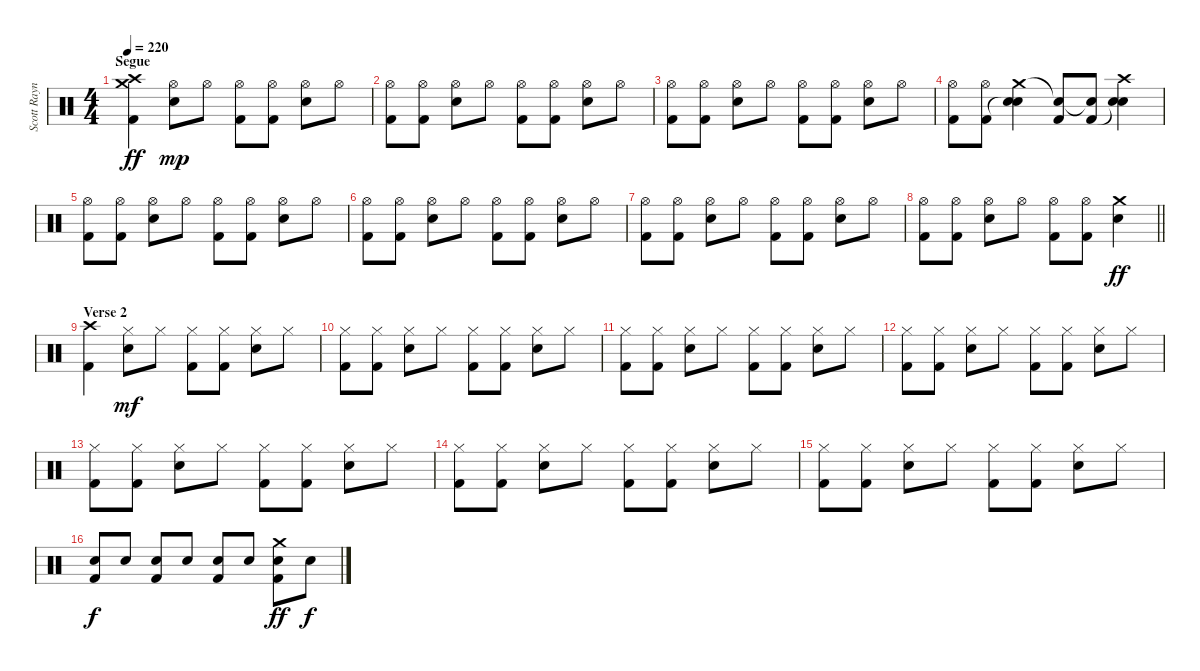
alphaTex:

\track ("Scott Raynor - Drums" "Scott Rayn") {instrument percussion}
\staff {score}
\articulation defaults
\ts (4 4)
\section ("" "Segue")
\tempo 220
\clef neutral
\ks c
("Crash high (hit)" "Crash medium (hit)" "Kick (hit) 2").4{dy ff} ("Hi-Hat (open)" "Electric Snare (hit)").8{dy mp} "Hi-Hat (open)".8 ("Hi-Hat (open)" "Kick (hit) 2").8 ("Hi-Hat (open)" "Kick (hit) 2").8 ("Hi-Hat (open)" "Electric Snare (hit)").8 "Hi-Hat (open)".8 |
("Hi-Hat (open)" "Kick (hit) 2").8 ("Hi-Hat (open)" "Kick (hit) 2").8 ("Hi-Hat (open)" "Electric Snare (hit)").8 "Hi-Hat (open)".8 ("Hi-Hat (open)" "Kick (hit) 2").8 ("Hi-Hat (open)" "Kick (hit) 2").8 ("Hi-Hat (open)" "Electric Snare (hit)").8 "Hi-Hat (open)".8 |
("Hi-Hat (open)" "Kick (hit) 2").8 ("Hi-Hat (open)" "Kick (hit) 2").8 ("Hi-Hat (open)" "Electric Snare (hit)").8 "Hi-Hat (open)".8 ("Hi-Hat (open)" "Kick (hit) 2").8 ("Hi-Hat (open)" "Kick (hit) 2").8 ("Hi-Hat (open)" "Electric Snare (hit)").8 "Hi-Hat (open)".8 |
("Hi-Hat (open)" "Kick (hit) 2").8 ("Hi-Hat (open)" "Kick (hit) 2").8 ("Crash medium (hit)" "Snare (hit)"{t} "Electric Snare (hit)").4 ("Snare (hit)"{t} "Kick (hit) 2").8 ("Snare (hit)"{t} "Kick (hit) 2").8 ("Crash high (hit)" "Snare (hit)"{t} "Electric Snare (hit)").4 |
("Hi-Hat (open)" "Kick (hit) 2").8 ("Hi-Hat (open)" "Kick (hit) 2").8 ("Hi-Hat (open)" "Electric Snare (hit)").8 "Hi-Hat (open)".8 ("Hi-Hat (open)" "Kick (hit) 2").8 ("Hi-Hat (open)" "Kick (hit) 2").8 ("Hi-Hat (open)" "Electric Snare (hit)").8 "Hi-Hat (open)".8 |
("Hi-Hat (open)" "Kick (hit) 2").8 ("Hi-Hat (open)" "Kick (hit) 2").8 ("Hi-Hat (open)" "Electric Snare (hit)").8 "Hi-Hat (open)".8 ("Hi-Hat (open)" "Kick (hit) 2").8 ("Hi-Hat (open)" "Kick (hit) 2").8 ("Hi-Hat (open)" "Electric Snare (hit)").8 "Hi-Hat (open)".8 |
("Hi-Hat (open)" "Kick (hit) 2").8 ("Hi-Hat (open)" "Kick (hit) 2").8 ("Hi-Hat (open)" "Electric Snare (hit)").8 "Hi-Hat (open)".8 ("Hi-Hat (open)" "Kick (hit) 2").8 ("Hi-Hat (open)" "Kick (hit) 2").8 ("Hi-Hat (open)" "Electric Snare (hit)").8 "Hi-Hat (open)".8 |
\barLineRight lightlight
("Hi-Hat (open)" "Kick (hit) 2").8 ("Hi-Hat (open)" "Kick (hit) 2").8 ("Hi-Hat (open)" "Electric Snare (hit)").8 "Hi-Hat (open)".8 ("Hi-Hat (open)" "Kick (hit) 2").8 ("Hi-Hat (open)" "Kick (hit) 2").8 ("Crash medium (hit)" "Electric Snare (hit)").4{dy ff} |
\section ("" "Verse 2")
("Crash high (hit)" "Kick (hit) 2").4 ("Hi-Hat (closed)" "Electric Snare (hit)").8{dy mf} "Hi-Hat (closed)".8 ("Hi-Hat (closed)" "Kick (hit) 2").8 ("Hi-Hat (closed)" "Kick (hit) 2").8 ("Hi-Hat (closed)" "Electric Snare (hit)").8 "Hi-Hat (closed)".8 |
("Hi-Hat (closed)" "Kick (hit) 2").8 ("Hi-Hat (closed)" "Kick (hit) 2").8 ("Hi-Hat (closed)" "Electric Snare (hit)").8 "Hi-Hat (closed)".8 ("Hi-Hat (closed)" "Kick (hit) 2").8 ("Hi-Hat (closed)" "Kick (hit) 2").8 ("Hi-Hat (closed)" "Electric Snare (hit)").8 "Hi-Hat (closed)".8 |
("Hi-Hat (closed)" "Kick (hit) 2").8 ("Hi-Hat (closed)" "Kick (hit) 2").8 ("Hi-Hat (closed)" "Electric Snare (hit)").8 "Hi-Hat (closed)".8 ("Hi-Hat (closed)" "Kick (hit) 2").8 ("Hi-Hat (closed)" "Kick (hit) 2").8 ("Hi-Hat (closed)" "Electric Snare (hit)").8 "Hi-Hat (closed)".8 |
("Hi-Hat (closed)" "Kick (hit) 2").8 ("Hi-Hat (closed)" "Kick (hit) 2").8 ("Hi-Hat (closed)" "Electric Snare (hit)").8 "Hi-Hat (closed)".8 ("Hi-Hat (closed)" "Kick (hit) 2").8 ("Hi-Hat (closed)" "Kick (hit) 2").8 ("Hi-Hat (closed)" "Electric Snare (hit)").8 "Hi-Hat (closed)".8 |
("Hi-Hat (closed)" "Kick (hit) 2").8 ("Hi-Hat (closed)" "Kick (hit) 2").8 ("Hi-Hat (closed)" "Electric Snare (hit)").8 "Hi-Hat (closed)".8 ("Hi-Hat (closed)" "Kick (hit) 2").8 ("Hi-Hat (closed)" "Kick (hit) 2").8 ("Hi-Hat (closed)" "Electric Snare (hit)").8 "Hi-Hat (closed)".8 |
("Hi-Hat (closed)" "Kick (hit) 2").8 ("Hi-Hat (closed)" "Kick (hit) 2").8 ("Hi-Hat (closed)" "Electric Snare (hit)").8 "Hi-Hat (closed)".8 ("Hi-Hat (closed)" "Kick (hit) 2").8 ("Hi-Hat (closed)" "Kick (hit) 2").8 ("Hi-Hat (closed)" "Electric Snare (hit)").8 "Hi-Hat (closed)".8 |
("Hi-Hat (closed)" "Kick (hit) 2").8 ("Hi-Hat (closed)" "Kick (hit) 2").8 ("Hi-Hat (closed)" "Electric Snare (hit)").8 "Hi-Hat (closed)".8 ("Hi-Hat (closed)" "Kick (hit) 2").8 ("Hi-Hat (closed)" "Kick (hit) 2").8 ("Hi-Hat (closed)" "Electric Snare (hit)").8 "Hi-Hat (closed)".8 |
("Electric Snare (hit)" "Kick (hit) 2").8{dy f} "Electric Snare (hit)".8 ("Electric Snare (hit)" "Kick (hit) 2").8 "Electric Snare (hit)".8 ("Electric Snare (hit)" "Kick (hit) 2").8 "Electric Snare (hit)".8 ("Crash medium (hit)" "Electric Snare (hit)" "Kick (hit) 2").8{dy ff} "Electric Snare (hit)".8{dy f}
